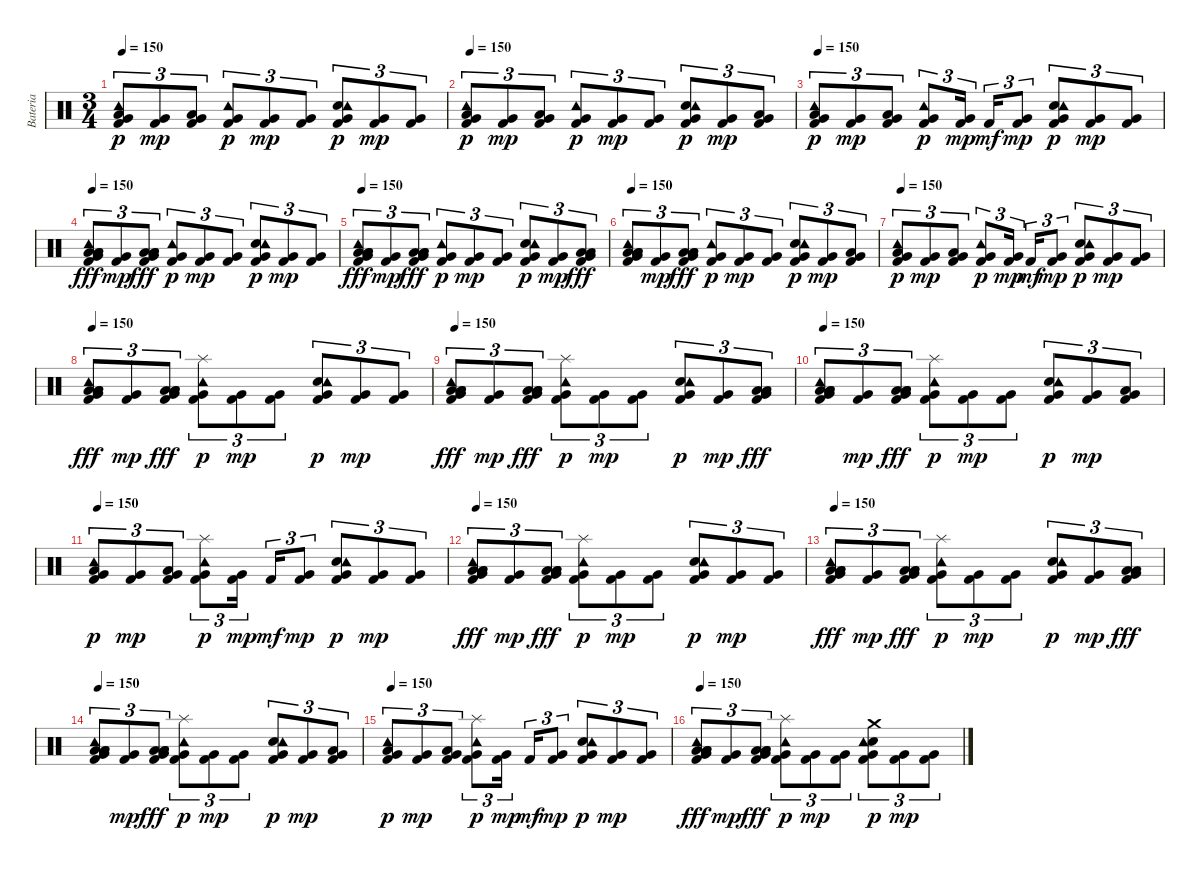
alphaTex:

\track ("Bateria" "Bateria") {instrument percussion}
\staff {score}
\articulation defaults
\ts (3 4)
\tempo 150
\clef neutral
\ks c
("Low Floor Tom (hit)" "Very Low Tom (hit)" "Kick (hit) 2" "Tambourine (hit)").8{tu (3 2) dy p} ("Very Low Tom (hit)" "Kick (hit) 2").8{tu (3 2) dy mp} ("Low Floor Tom (hit)" "Very Low Tom (hit)" "Kick (hit) 2").8{tu (3 2)} ("Very Low Tom (hit)" "Kick (hit) 2" "Tambourine (hit)").8{tu (3 2) dy p} ("Very Low Tom (hit)" "Kick (hit) 2").8{tu (3 2) dy mp} ("Very Low Tom (hit)" "Kick (hit) 2").8{tu (3 2)} ("Electric Snare (hit)" "Very Low Tom (hit)" "Kick (hit) 2" "Tambourine (hit)").8{tu (3 2) dy p} ("Very Low Tom (hit)" "Kick (hit) 2").8{tu (3 2) dy mp} ("Very Low Tom (hit)" "Kick (hit) 2").8{tu (3 2)} |
\tempo 150
("Low Floor Tom (hit)" "Very Low Tom (hit)" "Kick (hit) 2" "Tambourine (hit)").8{tu (3 2) dy p} ("Very Low Tom (hit)" "Kick (hit) 2").8{tu (3 2) dy mp} ("Low Floor Tom (hit)" "Very Low Tom (hit)" "Kick (hit) 2").8{tu (3 2)} ("Very Low Tom (hit)" "Kick (hit) 2" "Tambourine (hit)").8{tu (3 2) dy p} ("Very Low Tom (hit)" "Kick (hit) 2").8{tu (3 2) dy mp} ("Very Low Tom (hit)" "Kick (hit) 2").8{tu (3 2)} ("Electric Snare (hit)" "Very Low Tom (hit)" "Kick (hit) 2" "Tambourine (hit)").8{tu (3 2) dy p} ("Very Low Tom (hit)" "Kick (hit) 2").8{tu (3 2) dy mp} ("Low Floor Tom (hit)" "Very Low Tom (hit)" "Kick (hit) 2").8{tu (3 2)} |
\tempo 150
("Low Floor Tom (hit)" "Very Low Tom (hit)" "Kick (hit) 2" "Tambourine (hit)").8{tu (3 2) dy p} ("Very Low Tom (hit)" "Kick (hit) 2").8{tu (3 2) dy mp} ("Low Floor Tom (hit)" "Very Low Tom (hit)" "Kick (hit) 2").8{tu (3 2)} ("Very Low Tom (hit)" "Kick (hit) 2" "Tambourine (hit)").8{tu (3 2) dy p} ("Very Low Tom (hit)" "Kick (hit) 2").16{tu (3 2) dy mp beam splitsecondary} "Kick (hit) 2".16{tu (3 2) dy mf} ("Very Low Tom (hit)" "Kick (hit) 2").8{tu (3 2) dy mp} ("Electric Snare (hit)" "Very Low Tom (hit)" "Kick (hit) 2" "Tambourine (hit)").8{tu (3 2) dy p} ("Very Low Tom (hit)" "Kick (hit) 2").8{tu (3 2) dy mp} ("Very Low Tom (hit)" "Kick (hit) 2").8{tu (3 2)} |
\tempo 150
("Low Floor Tom (hit)" "Very Low Tom (hit)" "Kick (hit) 2" "Tambourine (hit)" "Low Floor Tom (hit)" "Low Tom (hit)").8{tu (3 2) dy fff} ("Very Low Tom (hit)" "Kick (hit) 2").8{tu (3 2) dy mp} ("Low Floor Tom (hit)" "Very Low Tom (hit)" "Kick (hit) 2" "Low Floor Tom (hit)" "Low Tom (hit)").8{tu (3 2) dy fff} ("Very Low Tom (hit)" "Kick (hit) 2" "Tambourine (hit)").8{tu (3 2) dy p} ("Very Low Tom (hit)" "Kick (hit) 2").8{tu (3 2) dy mp} ("Very Low Tom (hit)" "Kick (hit) 2").8{tu (3 2)} ("Electric Snare (hit)" "Very Low Tom (hit)" "Kick (hit) 2" "Tambourine (hit)").8{tu (3 2) dy p} ("Very Low Tom (hit)" "Kick (hit) 2").8{tu (3 2) dy mp} ("Very Low Tom (hit)" "Kick (hit) 2").8{tu (3 2)} |
\tempo 150
("Low Floor Tom (hit)" "Very Low Tom (hit)" "Kick (hit) 2" "Tambourine (hit)" "Low Floor Tom (hit)" "Low Tom (hit)").8{tu (3 2) dy fff} ("Very Low Tom (hit)" "Kick (hit) 2").8{tu (3 2) dy mp} ("Low Floor Tom (hit)" "Very Low Tom (hit)" "Kick (hit) 2" "Low Floor Tom (hit)" "Low Tom (hit)").8{tu (3 2) dy fff} ("Very Low Tom (hit)" "Kick (hit) 2" "Tambourine (hit)").8{tu (3 2) dy p} ("Very Low Tom (hit)" "Kick (hit) 2").8{tu (3 2) dy mp} ("Very Low Tom (hit)" "Kick (hit) 2").8{tu (3 2)} ("Electric Snare (hit)" "Very Low Tom (hit)" "Kick (hit) 2" "Tambourine (hit)").8{tu (3 2) dy p} ("Very Low Tom (hit)" "Kick (hit) 2").8{tu (3 2) dy mp} ("Very Low Tom (hit)" "Kick (hit) 2" "Low Floor Tom (hit)" "Low Tom (hit)").8{tu (3 2) dy fff} |
\tempo 150
("Low Floor Tom (hit)" "Very Low Tom (hit)" "Kick (hit) 2" "Tambourine (hit)" "Low Floor Tom (hit)" "Low Tom (hit)").8{tu (3 2)} ("Very Low Tom (hit)" "Kick (hit) 2").8{tu (3 2) dy mp} ("Low Floor Tom (hit)" "Very Low Tom (hit)" "Kick (hit) 2" "Low Floor Tom (hit)" "Low Tom (hit)").8{tu (3 2) dy fff} ("Very Low Tom (hit)" "Kick (hit) 2" "Tambourine (hit)").8{tu (3 2) dy p} ("Very Low Tom (hit)" "Kick (hit) 2").8{tu (3 2) dy mp} ("Very Low Tom (hit)" "Kick (hit) 2").8{tu (3 2)} ("Electric Snare (hit)" "Very Low Tom (hit)" "Kick (hit) 2" "Tambourine (hit)").8{tu (3 2) dy p} ("Very Low Tom (hit)" "Kick (hit) 2").8{tu (3 2) dy mp} ("Low Floor Tom (hit)" "Very Low Tom (hit)" "Kick (hit) 2").8{tu (3 2)} |
\tempo 150
("Low Floor Tom (hit)" "Very Low Tom (hit)" "Kick (hit) 2" "Tambourine (hit)").8{tu (3 2) dy p} ("Very Low Tom (hit)" "Kick (hit) 2").8{tu (3 2) dy mp} ("Low Floor Tom (hit)" "Very Low Tom (hit)" "Kick (hit) 2").8{tu (3 2)} ("Very Low Tom (hit)" "Kick (hit) 2" "Tambourine (hit)").8{tu (3 2) dy p} ("Very Low Tom (hit)" "Kick (hit) 2").16{tu (3 2) dy mp beam splitsecondary} "Kick (hit) 2".16{tu (3 2) dy mf} ("Very Low Tom (hit)" "Kick (hit) 2").8{tu (3 2) dy mp} ("Electric Snare (hit)" "Very Low Tom (hit)" "Kick (hit) 2" "Tambourine (hit)").8{tu (3 2) dy p} ("Very Low Tom (hit)" "Kick (hit) 2").8{tu (3 2) dy mp} ("Very Low Tom (hit)" "Kick (hit) 2").8{tu (3 2)} |
\tempo 150
("Low Floor Tom (hit)" "Very Low Tom (hit)" "Kick (hit) 2" "Tambourine (hit)" "Low Floor Tom (hit)" "Low Tom (hit)").8{tu (3 2) dy fff} ("Very Low Tom (hit)" "Kick (hit) 2").8{tu (3 2) dy mp} ("Low Floor Tom (hit)" "Very Low Tom (hit)" "Kick (hit) 2" "Low Floor Tom (hit)" "Low Tom (hit)").8{tu (3 2) dy fff} ("Splash (hit)" "Very Low Tom (hit)" "Kick (hit) 2" "Tambourine (hit)").8{tu (3 2) dy p} ("Very Low Tom (hit)" "Kick (hit) 2").8{tu (3 2) dy mp} ("Very Low Tom (hit)" "Kick (hit) 2").8{tu (3 2)} ("Electric Snare (hit)" "Very Low Tom (hit)" "Kick (hit) 2" "Tambourine (hit)").8{tu (3 2) dy p} ("Very Low Tom (hit)" "Kick (hit) 2").8{tu (3 2) dy mp} ("Very Low Tom (hit)" "Kick (hit) 2").8{tu (3 2)} |
\tempo 150
("Low Floor Tom (hit)" "Very Low Tom (hit)" "Kick (hit) 2" "Tambourine (hit)" "Low Floor Tom (hit)" "Low Tom (hit)").8{tu (3 2) dy fff} ("Very Low Tom (hit)" "Kick (hit) 2").8{tu (3 2) dy mp} ("Low Floor Tom (hit)" "Very Low Tom (hit)" "Kick (hit) 2" "Low Floor Tom (hit)" "Low Tom (hit)").8{tu (3 2) dy fff} ("Splash (hit)" "Very Low Tom (hit)" "Kick (hit) 2" "Tambourine (hit)").8{tu (3 2) dy p} ("Very Low Tom (hit)" "Kick (hit) 2").8{tu (3 2) dy mp} ("Very Low Tom (hit)" "Kick (hit) 2").8{tu (3 2)} ("Electric Snare (hit)" "Very Low Tom (hit)" "Kick (hit) 2" "Tambourine (hit)").8{tu (3 2) dy p} ("Very Low Tom (hit)" "Kick (hit) 2").8{tu (3 2) dy mp} ("Very Low Tom (hit)" "Kick (hit) 2" "Low Floor Tom (hit)" "Low Tom (hit)").8{tu (3 2) dy fff} |
\tempo 150
("Low Floor Tom (hit)" "Very Low Tom (hit)" "Kick (hit) 2" "Tambourine (hit)" "Low Floor Tom (hit)" "Low Tom (hit)").8{tu (3 2)} ("Very Low Tom (hit)" "Kick (hit) 2").8{tu (3 2) dy mp} ("Low Floor Tom (hit)" "Very Low Tom (hit)" "Kick (hit) 2" "Low Floor Tom (hit)" "Low Tom (hit)").8{tu (3 2) dy fff} ("Splash (hit)" "Very Low Tom (hit)" "Kick (hit) 2" "Tambourine (hit)").8{tu (3 2) dy p} ("Very Low Tom (hit)" "Kick (hit) 2").8{tu (3 2) dy mp} ("Very Low Tom (hit)" "Kick (hit) 2").8{tu (3 2)} ("Electric Snare (hit)" "Very Low Tom (hit)" "Kick (hit) 2" "Tambourine (hit)").8{tu (3 2) dy p} ("Very Low Tom (hit)" "Kick (hit) 2").8{tu (3 2) dy mp} ("Low Floor Tom (hit)" "Very Low Tom (hit)" "Kick (hit) 2").8{tu (3 2)} |
\tempo 150
("Low Floor Tom (hit)" "Very Low Tom (hit)" "Kick (hit) 2" "Tambourine (hit)").8{tu (3 2) dy p} ("Very Low Tom (hit)" "Kick (hit) 2").8{tu (3 2) dy mp} ("Low Floor Tom (hit)" "Very Low Tom (hit)" "Kick (hit) 2").8{tu (3 2)} ("Splash (hit)" "Very Low Tom (hit)" "Kick (hit) 2" "Tambourine (hit)").8{tu (3 2) dy p} ("Very Low Tom (hit)" "Kick (hit) 2").16{tu (3 2) dy mp beam splitsecondary} "Kick (hit) 2".16{tu (3 2) dy mf} ("Very Low Tom (hit)" "Kick (hit) 2").8{tu (3 2) dy mp} ("Electric Snare (hit)" "Very Low Tom (hit)" "Kick (hit) 2" "Tambourine (hit)").8{tu (3 2) dy p} ("Very Low Tom (hit)" "Kick (hit) 2").8{tu (3 2) dy mp} ("Very Low Tom (hit)" "Kick (hit) 2").8{tu (3 2)} |
\tempo 150
("Low Floor Tom (hit)" "Very Low Tom (hit)" "Kick (hit) 2" "Tambourine (hit)" "Low Floor Tom (hit)" "Low Tom (hit)").8{tu (3 2) dy fff} ("Very Low Tom (hit)" "Kick (hit) 2").8{tu (3 2) dy mp} ("Low Floor Tom (hit)" "Very Low Tom (hit)" "Kick (hit) 2" "Low Floor Tom (hit)" "Low Tom (hit)").8{tu (3 2) dy fff} ("Splash (hit)" "Very Low Tom (hit)" "Kick (hit) 2" "Tambourine (hit)").8{tu (3 2) dy p} ("Very Low Tom (hit)" "Kick (hit) 2").8{tu (3 2) dy mp} ("Very Low Tom (hit)" "Kick (hit) 2").8{tu (3 2)} ("Electric Snare (hit)" "Very Low Tom (hit)" "Kick (hit) 2" "Tambourine (hit)").8{tu (3 2) dy p} ("Very Low Tom (hit)" "Kick (hit) 2").8{tu (3 2) dy mp} ("Very Low Tom (hit)" "Kick (hit) 2").8{tu (3 2)} |
\tempo 150
("Low Floor Tom (hit)" "Very Low Tom (hit)" "Kick (hit) 2" "Tambourine (hit)" "Low Floor Tom (hit)" "Low Tom (hit)").8{tu (3 2) dy fff} ("Very Low Tom (hit)" "Kick (hit) 2").8{tu (3 2) dy mp} ("Low Floor Tom (hit)" "Very Low Tom (hit)" "Kick (hit) 2" "Low Floor Tom (hit)" "Low Tom (hit)").8{tu (3 2) dy fff} ("Splash (hit)" "Very Low Tom (hit)" "Kick (hit) 2" "Tambourine (hit)").8{tu (3 2) dy p} ("Very Low Tom (hit)" "Kick (hit) 2").8{tu (3 2) dy mp} ("Very Low Tom (hit)" "Kick (hit) 2").8{tu (3 2)} ("Electric Snare (hit)" "Very Low Tom (hit)" "Kick (hit) 2" "Tambourine (hit)").8{tu (3 2) dy p} ("Very Low Tom (hit)" "Kick (hit) 2").8{tu (3 2) dy mp} ("Very Low Tom (hit)" "Kick (hit) 2" "Low Floor Tom (hit)" "Low Tom (hit)").8{tu (3 2) dy fff} |
\tempo 150
("Low Floor Tom (hit)" "Very Low Tom (hit)" "Kick (hit) 2" "Tambourine (hit)" "Low Floor Tom (hit)" "Low Tom (hit)").8{tu (3 2)} ("Very Low Tom (hit)" "Kick (hit) 2").8{tu (3 2) dy mp} ("Low Floor Tom (hit)" "Very Low Tom (hit)" "Kick (hit) 2" "Low Floor Tom (hit)" "Low Tom (hit)").8{tu (3 2) dy fff} ("Splash (hit)" "Very Low Tom (hit)" "Kick (hit) 2" "Tambourine (hit)").8{tu (3 2) dy p} ("Very Low Tom (hit)" "Kick (hit) 2").8{tu (3 2) dy mp} ("Very Low Tom (hit)" "Kick (hit) 2").8{tu (3 2)} ("Electric Snare (hit)" "Very Low Tom (hit)" "Kick (hit) 2" "Tambourine (hit)").8{tu (3 2) dy p} ("Very Low Tom (hit)" "Kick (hit) 2").8{tu (3 2) dy mp} ("Low Floor Tom (hit)" "Very Low Tom (hit)" "Kick (hit) 2").8{tu (3 2)} |
\tempo 150
("Low Floor Tom (hit)" "Very Low Tom (hit)" "Kick (hit) 2" "Tambourine (hit)").8{tu (3 2) dy p} ("Very Low Tom (hit)" "Kick (hit) 2").8{tu (3 2) dy mp} ("Low Floor Tom (hit)" "Very Low Tom (hit)" "Kick (hit) 2").8{tu (3 2)} ("Splash (hit)" "Very Low Tom (hit)" "Kick (hit) 2" "Tambourine (hit)").8{tu (3 2) dy p} ("Very Low Tom (hit)" "Kick (hit) 2").16{tu (3 2) dy mp beam splitsecondary} "Kick (hit) 2".16{tu (3 2) dy mf} ("Very Low Tom (hit)" "Kick (hit) 2").8{tu (3 2) dy mp} ("Electric Snare (hit)" "Very Low Tom (hit)" "Kick (hit) 2" "Tambourine (hit)").8{tu (3 2) dy p} ("Very Low Tom (hit)" "Kick (hit) 2").8{tu (3 2) dy mp} ("Very Low Tom (hit)" "Kick (hit) 2").8{tu (3 2)} |
\tempo 150
("Low Floor Tom (hit)" "Very Low Tom (hit)" "Kick (hit) 2" "Tambourine (hit)" "Low Floor Tom (hit)" "Low Tom (hit)").8{tu (3 2) dy fff} ("Very Low Tom (hit)" "Kick (hit) 2").8{tu (3 2) dy mp} ("Low Floor Tom (hit)" "Very Low Tom (hit)" "Kick (hit) 2" "Low Floor Tom (hit)" "Low Tom (hit)").8{tu (3 2) dy fff} ("Splash (hit)" "Very Low Tom (hit)" "Kick (hit) 2" "Tambourine (hit)").8{tu (3 2) dy p} ("Very Low Tom (hit)" "Kick (hit) 2").8{tu (3 2) dy mp} ("Very Low Tom (hit)" "Kick (hit) 2").8{tu (3 2)} ("Electric Snare (hit)" "Very Low Tom (hit)" "Kick (hit) 2" "Crash medium (hit)" "Tambourine (hit)").8{tu (3 2) dy p} ("Very Low Tom (hit)" "Kick (hit) 2").8{tu (3 2) dy mp} ("Very Low Tom (hit)" "Kick (hit) 2").8{tu (3 2)}
